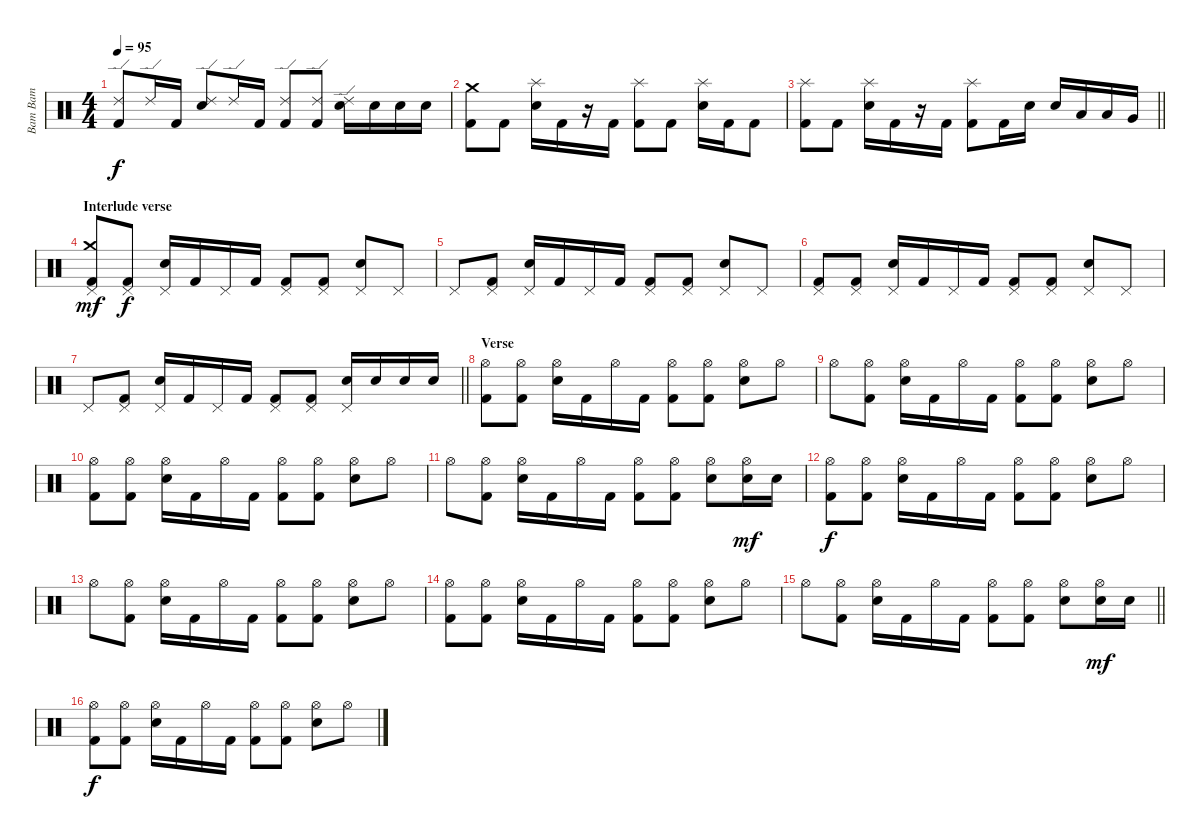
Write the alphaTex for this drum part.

\track ("Bam Bam" "Bam Bam") {instrument percussion}
\staff {score}
\articulation defaults
\ts (4 4)
\tempo 95
\clef neutral
\ks c
("Ride (edge) 2" "Kick (hit) 2").8{dy f} "Ride (edge) 2".16 "Kick (hit) 2".16 ("Ride (edge) 2" "Electric Snare (hit)").8 "Ride (edge) 2".16 "Kick (hit) 2".16 ("Ride (edge) 2" "Kick (hit) 2").8 ("Ride (edge) 2" "Kick (hit) 2").8 ("Ride (edge) 2" "Electric Snare (hit)").16 "Electric Snare (hit)".16 "Electric Snare (hit)".16 "Electric Snare (hit)".16 |
("Crash medium (hit)" "Kick (hit) 2").8 "Kick (hit) 2".8 ("Splash (hit)" "Electric Snare (hit)").16 "Kick (hit) 2".16 r.16 "Kick (hit) 2".16 ("Splash (hit)" "Kick (hit) 2").8 "Kick (hit) 2".8 ("Splash (hit)" "Electric Snare (hit)").16 "Kick (hit) 2".16 "Kick (hit) 2".8 |
\barLineRight lightlight
("Splash (hit)" "Kick (hit) 2").8 "Kick (hit) 2".8 ("Splash (hit)" "Electric Snare (hit)").16 "Kick (hit) 2".16 r.16 "Kick (hit) 2".16 ("Splash (hit)" "Kick (hit) 2").8 "Kick (hit) 2".16 "Electric Snare (hit)".16 "Electric Snare (hit)".16 "Low Tom (hit)".16 "Low Tom (hit)".16 "Very Low Tom (hit)".16 |
\section ("" "Interlude verse")
("Crash medium (hit)" "Pedal Hi-Hat (hit)" "Kick (hit) 2").8{dy mf} ("Pedal Hi-Hat (hit)" "Kick (hit) 2").8{dy f} ("Pedal Hi-Hat (hit)" "Electric Snare (hit)").16 "Kick (hit) 2".16 "Pedal Hi-Hat (hit)".16 "Kick (hit) 2".16 ("Pedal Hi-Hat (hit)" "Kick (hit) 2").8 ("Pedal Hi-Hat (hit)" "Kick (hit) 2").8 ("Pedal Hi-Hat (hit)" "Electric Snare (hit)").8 "Pedal Hi-Hat (hit)".8 |
"Pedal Hi-Hat (hit)".8 ("Pedal Hi-Hat (hit)" "Kick (hit) 2").8 ("Pedal Hi-Hat (hit)" "Electric Snare (hit)").16 "Kick (hit) 2".16 "Pedal Hi-Hat (hit)".16 "Kick (hit) 2".16 ("Pedal Hi-Hat (hit)" "Kick (hit) 2").8 ("Pedal Hi-Hat (hit)" "Kick (hit) 2").8 ("Pedal Hi-Hat (hit)" "Electric Snare (hit)").8 "Pedal Hi-Hat (hit)".8 |
("Pedal Hi-Hat (hit)" "Kick (hit) 2").8 ("Pedal Hi-Hat (hit)" "Kick (hit) 2").8 ("Pedal Hi-Hat (hit)" "Electric Snare (hit)").16 "Kick (hit) 2".16 "Pedal Hi-Hat (hit)".16 "Kick (hit) 2".16 ("Pedal Hi-Hat (hit)" "Kick (hit) 2").8 ("Pedal Hi-Hat (hit)" "Kick (hit) 2").8 ("Pedal Hi-Hat (hit)" "Electric Snare (hit)").8 "Pedal Hi-Hat (hit)".8 |
\barLineRight lightlight "Pedal Hi-Hat (hit)".8
("Pedal Hi-Hat (hit)" "Kick (hit) 2").8 ("Pedal Hi-Hat (hit)" "Electric Snare (hit)").16 "Kick (hit) 2".16 "Pedal Hi-Hat (hit)".16 "Kick (hit) 2".16 ("Pedal Hi-Hat (hit)" "Kick (hit) 2").8 ("Pedal Hi-Hat (hit)" "Kick (hit) 2").8 ("Pedal Hi-Hat (hit)" "Electric Snare (hit)").16 "Electric Snare (hit)".16 "Electric Snare (hit)".16 "Electric Snare (hit)".16 |
\section ("" "Verse")
("Hi-Hat (open)" "Kick (hit) 2").8 ("Hi-Hat (open)" "Kick (hit) 2").8 ("Hi-Hat (open)" "Electric Snare (hit)").16 "Kick (hit) 2".16 "Hi-Hat (open)".16 "Kick (hit) 2".16 ("Hi-Hat (open)" "Kick (hit) 2").8 ("Hi-Hat (open)" "Kick (hit) 2").8 ("Hi-Hat (open)" "Electric Snare (hit)").8 "Hi-Hat (open)".8 |
"Hi-Hat (open)".8 ("Hi-Hat (open)" "Kick (hit) 2").8 ("Hi-Hat (open)" "Electric Snare (hit)").16 "Kick (hit) 2".16 "Hi-Hat (open)".16 "Kick (hit) 2".16 ("Hi-Hat (open)" "Kick (hit) 2").8 ("Hi-Hat (open)" "Kick (hit) 2").8 ("Hi-Hat (open)" "Electric Snare (hit)").8 "Hi-Hat (open)".8 |
("Hi-Hat (open)" "Kick (hit) 2").8 ("Hi-Hat (open)" "Kick (hit) 2").8 ("Hi-Hat (open)" "Electric Snare (hit)").16 "Kick (hit) 2".16 "Hi-Hat (open)".16 "Kick (hit) 2".16 ("Hi-Hat (open)" "Kick (hit) 2").8 ("Hi-Hat (open)" "Kick (hit) 2").8 ("Hi-Hat (open)" "Electric Snare (hit)").8 "Hi-Hat (open)".8 |
"Hi-Hat (open)".8 ("Hi-Hat (open)" "Kick (hit) 2").8 ("Hi-Hat (open)" "Electric Snare (hit)").16 "Kick (hit) 2".16 "Hi-Hat (open)".16 "Kick (hit) 2".16 ("Hi-Hat (open)" "Kick (hit) 2").8 ("Hi-Hat (open)" "Kick (hit) 2").8 ("Hi-Hat (open)" "Electric Snare (hit)").8 ("Hi-Hat (open)" "Electric Snare (hit)").16{dy mf} "Electric Snare (hit)".16 |
("Hi-Hat (open)" "Kick (hit) 2").8{dy f} ("Hi-Hat (open)" "Kick (hit) 2").8 ("Hi-Hat (open)" "Electric Snare (hit)").16 "Kick (hit) 2".16 "Hi-Hat (open)".16 "Kick (hit) 2".16 ("Hi-Hat (open)" "Kick (hit) 2").8 ("Hi-Hat (open)" "Kick (hit) 2").8 ("Hi-Hat (open)" "Electric Snare (hit)").8 "Hi-Hat (open)".8 |
"Hi-Hat (open)".8 ("Hi-Hat (open)" "Kick (hit) 2").8 ("Hi-Hat (open)" "Electric Snare (hit)").16 "Kick (hit) 2".16 "Hi-Hat (open)".16 "Kick (hit) 2".16 ("Hi-Hat (open)" "Kick (hit) 2").8 ("Hi-Hat (open)" "Kick (hit) 2").8 ("Hi-Hat (open)" "Electric Snare (hit)").8 "Hi-Hat (open)".8 |
("Hi-Hat (open)" "Kick (hit) 2").8 ("Hi-Hat (open)" "Kick (hit) 2").8 ("Hi-Hat (open)" "Electric Snare (hit)").16 "Kick (hit) 2".16 "Hi-Hat (open)".16 "Kick (hit) 2".16 ("Hi-Hat (open)" "Kick (hit) 2").8 ("Hi-Hat (open)" "Kick (hit) 2").8 ("Hi-Hat (open)" "Electric Snare (hit)").8 "Hi-Hat (open)".8 |
\barLineRight lightlight "Hi-Hat (open)".8
("Hi-Hat (open)" "Kick (hit) 2").8 ("Hi-Hat (open)" "Electric Snare (hit)").16 "Kick (hit) 2".16 "Hi-Hat (open)".16 "Kick (hit) 2".16 ("Hi-Hat (open)" "Kick (hit) 2").8 ("Hi-Hat (open)" "Kick (hit) 2").8 ("Hi-Hat (open)" "Electric Snare (hit)").8 ("Hi-Hat (open)" "Electric Snare (hit)").16{dy mf} "Electric Snare (hit)".16 |
("Hi-Hat (open)" "Kick (hit) 2").8{dy f} ("Hi-Hat (open)" "Kick (hit) 2").8 ("Hi-Hat (open)" "Electric Snare (hit)").16 "Kick (hit) 2".16 "Hi-Hat (open)".16 "Kick (hit) 2".16 ("Hi-Hat (open)" "Kick (hit) 2").8 ("Hi-Hat (open)" "Kick (hit) 2").8 ("Hi-Hat (open)" "Electric Snare (hit)").8 "Hi-Hat (open)".8
